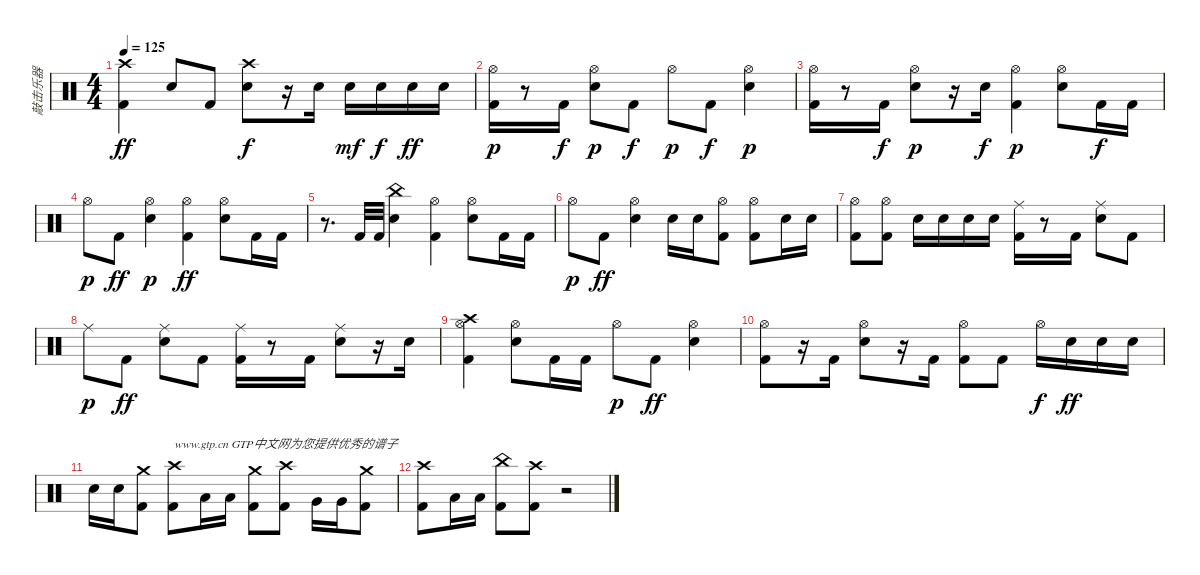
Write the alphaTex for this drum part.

\track ("敲击乐器" "敲击乐器") {instrument percussion}
\staff {score}
\articulation defaults
\ts (4 4)
\tempo 125
\clef neutral
\ks c
("Crash high (hit)" "Kick (hit) 2").4{dy ff} "Snare (hit) 2".8 "Kick (hit) 2".8 ("Crash high (hit)" "Snare (hit) 2").8{dy f} r.16 "Snare (hit) 2".16 "Snare (hit) 2".16{dy mf} "Snare (hit) 2".16{dy f} "Snare (hit) 2".16{dy ff} "Snare (hit) 2".16 |
("Hi-Hat (open)" "Kick (hit) 2").16{dy p} r.8 "Kick (hit) 2".16{dy f} ("Hi-Hat (open)" "Snare (hit) 2").8{dy p} "Kick (hit) 2".8{dy f} "Hi-Hat (open)".8{dy p} "Kick (hit) 2".8{dy f} ("Hi-Hat (open)" "Snare (hit) 2").4{dy p} |
("Hi-Hat (open)" "Kick (hit) 2").16 r.8 "Kick (hit) 2".16{dy f} ("Hi-Hat (open)" "Snare (hit) 2").8{dy p} r.16 "Snare (hit) 2".16{dy f} ("Hi-Hat (open)" "Kick (hit) 2").4{dy p} ("Hi-Hat (open)" "Snare (hit) 2").8 "Kick (hit) 2".16{dy f} "Kick (hit) 2".16 |
"Hi-Hat (open)".8{dy p} "Kick (hit) 2".8{dy ff} ("Hi-Hat (open)" "Snare (hit) 2").4{dy p} ("Hi-Hat (open)" "Kick (hit) 2").4{dy ff} ("Hi-Hat (open)" "Snare (hit) 2").8 "Kick (hit) 2".16 "Kick (hit) 2".16 |
r.8{d} "Kick (hit) 2".32 "Kick (hit) 2".32 ("China (hit)" "Snare (hit) 2").4 ("Hi-Hat (open)" "Kick (hit) 2").4 ("Hi-Hat (open)" "Snare (hit) 2").8 "Kick (hit) 2".16 "Kick (hit) 2".16 |
"Hi-Hat (open)".8{dy p} "Kick (hit) 2".8{dy ff} ("Hi-Hat (open)" "Snare (hit) 2").4 "Snare (hit) 2".16 "Snare (hit) 2".16 ("Hi-Hat (open)" "Kick (hit) 2").8 ("Hi-Hat (open)" "Kick (hit) 2").8 "Snare (hit) 2".16 "Snare (hit) 2".16 |
("Hi-Hat (open)" "Kick (hit) 2").8 ("Hi-Hat (open)" "Kick (hit) 2").8 "Snare (hit) 2".16 "Snare (hit) 2".16 "Snare (hit) 2".16 "Snare (hit) 2".16 ("Ride (middle)" "Kick (hit) 2").16 r.8 "Kick (hit) 2".16 ("Ride (middle)" "Snare (hit) 2").8 "Kick (hit) 2".8 |
"Ride (middle)".8{dy p} "Kick (hit) 2".8{dy ff} ("Ride (middle)" "Snare (hit) 2").8 "Kick (hit) 2".8 ("Ride (middle)" "Kick (hit) 2").16 r.8 "Kick (hit) 2".16 ("Ride (middle)" "Snare (hit) 2").8 r.16 "Snare (hit) 2".16 |
("Crash high (hit)" "Hi-Hat (open)" "Kick (hit) 2").4 ("Hi-Hat (open)" "Snare (hit) 2").8 "Kick (hit) 2".16 "Kick (hit) 2".16 "Hi-Hat (open)".8{dy p} "Kick (hit) 2".8{dy ff} ("Hi-Hat (open)" "Snare (hit) 2").4 |
("Hi-Hat (open)" "Kick (hit) 2").8 r.16 "Kick (hit) 2".16 ("Hi-Hat (open)" "Snare (hit) 2").8 r.16 "Kick (hit) 2".16 ("Hi-Hat (open)" "Kick (hit) 2").8 "Kick (hit) 2".8 "Hi-Hat (open)".16{dy f} "Snare (hit) 2".16{dy ff} "Snare (hit) 2".16 "Snare (hit) 2".16 |
"Snare (hit) 2".16 "Snare (hit) 2".16 ("Crash medium (hit)" "Kick (hit) 2").8 ("Crash high (hit)" "Kick (hit) 2").8{txt "www.gtp.cn GTP中文网为您提供优秀的谱子"} "Low Tom (hit)".16 "Low Tom (hit)".16 ("Crash medium (hit)" "Kick (hit) 2").8 ("Crash high (hit)" "Kick (hit) 2").8 "Very Low Tom (hit)".16 "Very Low Tom (hit)".16 ("Crash medium (hit)" "Kick (hit) 2").8 |
("Crash high (hit)" "Kick (hit) 2").8 "Low Floor Tom (hit)".16 "Low Floor Tom (hit)".16 ("China (hit)" "Kick (hit) 2").8 ("Crash high (hit)" "Kick (hit) 2").8 r.2
